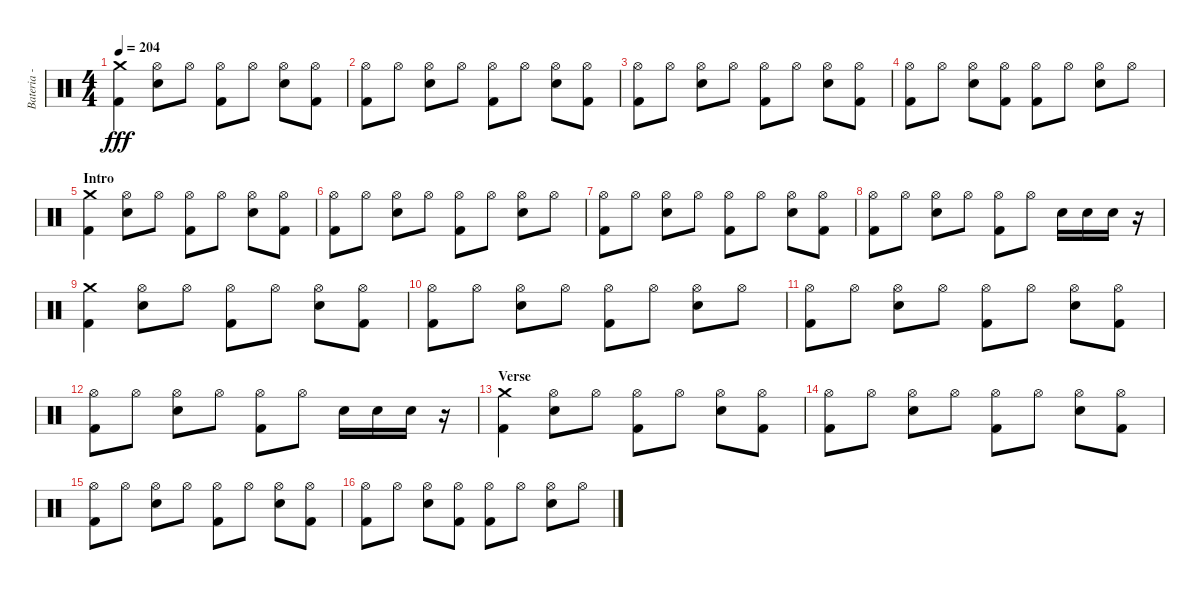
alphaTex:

\track ("Bateria - Larzon" "Bateria - ") {instrument percussion}
\staff {score}
\articulation defaults
\ts (4 4)
\tempo 204
\clef neutral
\ks c
("Crash medium (hit)" "Kick (hit) 2").4{dy fff} ("Hi-Hat (open)" "Electric Snare (hit)").8 "Hi-Hat (open)".8 ("Kick (hit) 2" "Hi-Hat (open)").8 "Hi-Hat (open)".8 ("Electric Snare (hit)" "Hi-Hat (open)").8 ("Kick (hit) 2" "Hi-Hat (open)").8 |
("Kick (hit) 2" "Hi-Hat (open)").8 "Hi-Hat (open)".8 ("Electric Snare (hit)" "Hi-Hat (open)").8 "Hi-Hat (open)".8 ("Kick (hit) 2" "Hi-Hat (open)").8 "Hi-Hat (open)".8 ("Electric Snare (hit)" "Hi-Hat (open)").8 ("Hi-Hat (open)" "Kick (hit) 2").8 |
("Kick (hit) 2" "Hi-Hat (open)").8 "Hi-Hat (open)".8 ("Electric Snare (hit)" "Hi-Hat (open)").8 "Hi-Hat (open)".8 ("Kick (hit) 2" "Hi-Hat (open)").8 "Hi-Hat (open)".8 ("Electric Snare (hit)" "Hi-Hat (open)").8 ("Kick (hit) 2" "Hi-Hat (open)").8 |
("Kick (hit) 2" "Hi-Hat (open)").8 "Hi-Hat (open)".8 ("Electric Snare (hit)" "Hi-Hat (open)").8 ("Kick (hit) 2" "Hi-Hat (open)").8 ("Kick (hit) 2" "Hi-Hat (open)").8 "Hi-Hat (open)".8 ("Electric Snare (hit)" "Hi-Hat (open)").8 "Hi-Hat (open)".8 |
\section ("" "Intro")
("Crash medium (hit)" "Kick (hit) 2").4 ("Hi-Hat (open)" "Electric Snare (hit)").8 "Hi-Hat (open)".8 ("Kick (hit) 2" "Hi-Hat (open)").8 "Hi-Hat (open)".8 ("Electric Snare (hit)" "Hi-Hat (open)").8 ("Kick (hit) 2" "Hi-Hat (open)").8 |
("Kick (hit) 2" "Hi-Hat (open)").8 "Hi-Hat (open)".8 ("Electric Snare (hit)" "Hi-Hat (open)").8 "Hi-Hat (open)".8 ("Kick (hit) 2" "Hi-Hat (open)").8 "Hi-Hat (open)".8 ("Electric Snare (hit)" "Hi-Hat (open)").8 "Hi-Hat (open)".8 |
("Kick (hit) 2" "Hi-Hat (open)").8 "Hi-Hat (open)".8 ("Electric Snare (hit)" "Hi-Hat (open)").8 "Hi-Hat (open)".8 ("Kick (hit) 2" "Hi-Hat (open)").8 "Hi-Hat (open)".8 ("Electric Snare (hit)" "Hi-Hat (open)").8 ("Kick (hit) 2" "Hi-Hat (open)").8 |
("Kick (hit) 2" "Hi-Hat (open)").8 "Hi-Hat (open)".8 ("Electric Snare (hit)" "Hi-Hat (open)").8 "Hi-Hat (open)".8 ("Kick (hit) 2" "Hi-Hat (open)").8 "Hi-Hat (open)".8 "Electric Snare (hit)".16 "Electric Snare (hit)".16 "Electric Snare (hit)".16 r.16 |
("Crash medium (hit)" "Kick (hit) 2").4 ("Hi-Hat (open)" "Electric Snare (hit)").8 "Hi-Hat (open)".8 ("Kick (hit) 2" "Hi-Hat (open)").8 "Hi-Hat (open)".8 ("Electric Snare (hit)" "Hi-Hat (open)").8 ("Kick (hit) 2" "Hi-Hat (open)").8 |
("Kick (hit) 2" "Hi-Hat (open)").8 "Hi-Hat (open)".8 ("Electric Snare (hit)" "Hi-Hat (open)").8 "Hi-Hat (open)".8 ("Kick (hit) 2" "Hi-Hat (open)").8 "Hi-Hat (open)".8 ("Electric Snare (hit)" "Hi-Hat (open)").8 "Hi-Hat (open)".8 |
("Kick (hit) 2" "Hi-Hat (open)").8 "Hi-Hat (open)".8 ("Electric Snare (hit)" "Hi-Hat (open)").8 "Hi-Hat (open)".8 ("Kick (hit) 2" "Hi-Hat (open)").8 "Hi-Hat (open)".8 ("Electric Snare (hit)" "Hi-Hat (open)").8 ("Kick (hit) 2" "Hi-Hat (open)").8 |
("Kick (hit) 2" "Hi-Hat (open)").8 "Hi-Hat (open)".8 ("Electric Snare (hit)" "Hi-Hat (open)").8 "Hi-Hat (open)".8 ("Kick (hit) 2" "Hi-Hat (open)").8 "Hi-Hat (open)".8 "Electric Snare (hit)".16 "Electric Snare (hit)".16 "Electric Snare (hit)".16 r.16 |
\section ("" "Verse")
("Crash medium (hit)" "Kick (hit) 2").4 ("Hi-Hat (open)" "Electric Snare (hit)").8 "Hi-Hat (open)".8 ("Kick (hit) 2" "Hi-Hat (open)").8 "Hi-Hat (open)".8 ("Electric Snare (hit)" "Hi-Hat (open)").8 ("Kick (hit) 2" "Hi-Hat (open)").8 |
("Kick (hit) 2" "Hi-Hat (open)").8 "Hi-Hat (open)".8 ("Electric Snare (hit)" "Hi-Hat (open)").8 "Hi-Hat (open)".8 ("Kick (hit) 2" "Hi-Hat (open)").8 "Hi-Hat (open)".8 ("Electric Snare (hit)" "Hi-Hat (open)").8 ("Hi-Hat (open)" "Kick (hit) 2").8 |
("Kick (hit) 2" "Hi-Hat (open)").8 "Hi-Hat (open)".8 ("Electric Snare (hit)" "Hi-Hat (open)").8 "Hi-Hat (open)".8 ("Kick (hit) 2" "Hi-Hat (open)").8 "Hi-Hat (open)".8 ("Electric Snare (hit)" "Hi-Hat (open)").8 ("Kick (hit) 2" "Hi-Hat (open)").8 |
("Kick (hit) 2" "Hi-Hat (open)").8 "Hi-Hat (open)".8 ("Electric Snare (hit)" "Hi-Hat (open)").8 ("Kick (hit) 2" "Hi-Hat (open)").8 ("Kick (hit) 2" "Hi-Hat (open)").8 "Hi-Hat (open)".8 ("Electric Snare (hit)" "Hi-Hat (open)").8 "Hi-Hat (open)".8
